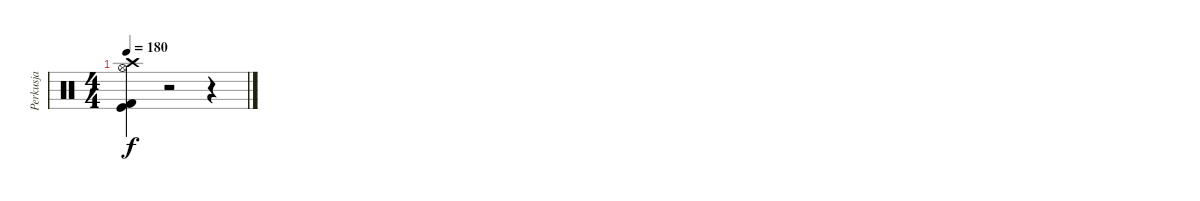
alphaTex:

\track ("Perkusja" "Perkusja") {instrument percussion}
\staff {score}
\articulation defaults
\ts (4 4)
\tempo 180
\clef neutral
\ks c
("Hi-Hat (open)" "Crash high (hit)" "Kick (hit) 2" "Kick (hit)").4{dy f} r.2 r.4
